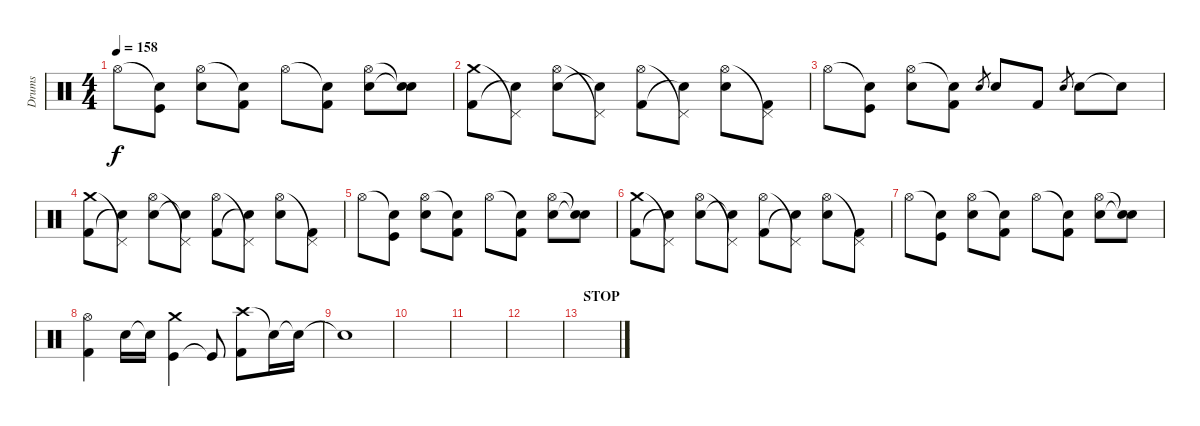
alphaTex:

\track ("Drums" "Drums") {instrument percussion}
\staff {score}
\articulation defaults
\ts (4 4)
\tempo 158
\clef neutral
\ks c "Hi-Hat (open)".8{dy f}
("Snare (hit)"{t} "Kick (hit)").8 ("Hi-Hat (open)" "Electric Snare (hit)").8 ("Snare (hit)"{t} "Kick (hit) 2").8 "Hi-Hat (open)".8 ("Snare (hit)"{t} "Kick (hit) 2").8 ("Hi-Hat (open)" "Electric Snare (hit)").8 ("Snare (hit)"{t} "Snare (hit)"{t}).8 |
("Crash medium (hit)" "Kick (hit) 2").8 ("Pedal Hi-Hat (hit)"{t} "Electric Snare (hit)"{t}).8 ("Hi-Hat (open)" "Electric Snare (hit)").8 ("Pedal Hi-Hat (hit)"{t} "Snare (hit)"{t}).8 ("Hi-Hat (open)" "Kick (hit) 2").8 ("Pedal Hi-Hat (hit)"{t} "Electric Snare (hit)"{t}).8 ("Hi-Hat (open)" "Electric Snare (hit)").8 ("Pedal Hi-Hat (hit)"{t} "Kick (hit) 2").8 |
"Hi-Hat (open)".8 ("Snare (hit)"{t} "Kick (hit)").8 ("Hi-Hat (open)" "Electric Snare (hit)").8 ("Snare (hit)"{t} "Kick (hit) 2").8 "Electric Snare (hit)".8{gr} "Electric Snare (hit)".8 "Kick (hit) 2".8 "Electric Snare (hit)".8{gr} "Electric Snare (hit)".8 "Snare (hit)"{t}.8 |
("Crash medium (hit)" "Kick (hit) 2").8 ("Pedal Hi-Hat (hit)"{t} "Electric Snare (hit)"{t}).8 ("Hi-Hat (open)" "Electric Snare (hit)").8 ("Pedal Hi-Hat (hit)"{t} "Snare (hit)"{t}).8 ("Hi-Hat (open)" "Kick (hit) 2").8 ("Pedal Hi-Hat (hit)"{t} "Electric Snare (hit)"{t}).8 ("Hi-Hat (open)" "Electric Snare (hit)").8 ("Pedal Hi-Hat (hit)"{t} "Kick (hit) 2").8 |
"Hi-Hat (open)".8 ("Snare (hit)"{t} "Kick (hit)").8 ("Hi-Hat (open)" "Electric Snare (hit)").8 ("Snare (hit)"{t} "Kick (hit) 2").8 "Hi-Hat (open)".8 ("Snare (hit)"{t} "Kick (hit) 2").8 ("Hi-Hat (open)" "Electric Snare (hit)").8 ("Snare (hit)"{t} "Snare (hit)"{t}).8 |
("Crash medium (hit)" "Kick (hit) 2").8 ("Pedal Hi-Hat (hit)"{t} "Electric Snare (hit)"{t}).8 ("Hi-Hat (open)" "Electric Snare (hit)").8 ("Pedal Hi-Hat (hit)"{t} "Snare (hit)"{t}).8 ("Hi-Hat (open)" "Kick (hit) 2").8 ("Pedal Hi-Hat (hit)"{t} "Electric Snare (hit)"{t}).8 ("Hi-Hat (open)" "Electric Snare (hit)").8 ("Pedal Hi-Hat (hit)"{t} "Kick (hit) 2").8 |
"Hi-Hat (open)".8 ("Snare (hit)"{t} "Kick (hit)").8 ("Hi-Hat (open)" "Electric Snare (hit)").8 ("Snare (hit)"{t} "Kick (hit) 2").8 "Hi-Hat (open)".8 ("Snare (hit)"{t} "Kick (hit) 2").8 ("Hi-Hat (open)" "Electric Snare (hit)").8 ("Snare (hit)"{t} "Snare (hit)"{t}).8 |
("Hi-Hat (open)" "Kick (hit) 2").4 "Electric Snare (hit)".16 "Snare (hit)"{t}.16 ("Kick (hit)" "Crash medium (hit)").4 "Kick (hit)"{t}.8 ("Crash high (hit)" "Kick (hit) 2").8 "Snare (hit)"{t}.16 "Snare (hit)"{t}.16 |
"Snare (hit)"{t}.1 |
|
|
|
\section ("" "STOP")
